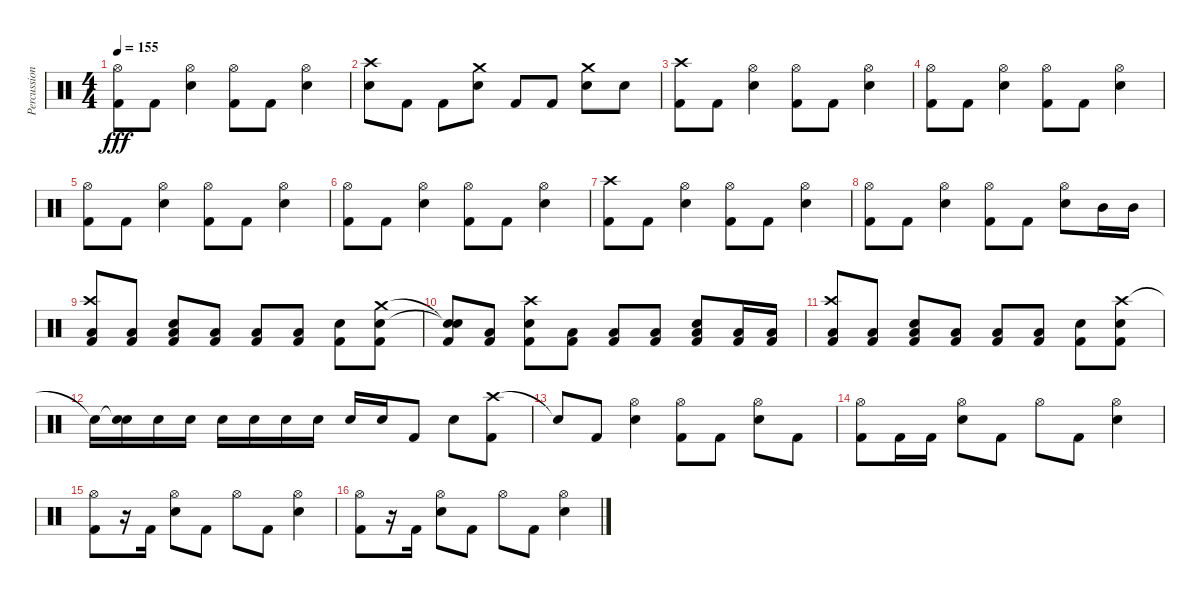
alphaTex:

\track ("Percussion" "Percussion") {instrument percussion}
\staff {score}
\articulation defaults
\ts (4 4)
\tempo 155
\clef neutral
\ks c
("Hi-Hat (open)" "Kick (hit) 2").8{dy fff} "Kick (hit) 2".8 ("Hi-Hat (open)" "Electric Snare (hit)").4 ("Hi-Hat (open)" "Kick (hit) 2").8 "Kick (hit) 2".8 ("Hi-Hat (open)" "Electric Snare (hit)").4 |
("Crash high (hit)" "Electric Snare (hit)").8 "Kick (hit) 2".8 "Kick (hit) 2".8 ("Crash medium (hit)" "Electric Snare (hit)").8 "Kick (hit) 2".8 "Kick (hit) 2".8 ("Crash medium (hit)" "Electric Snare (hit)").8 "Electric Snare (hit)".8 |
("Crash high (hit)" "Kick (hit) 2").8 "Kick (hit) 2".8 ("Hi-Hat (open)" "Electric Snare (hit)").4 ("Hi-Hat (open)" "Kick (hit) 2").8 "Kick (hit) 2".8 ("Hi-Hat (open)" "Electric Snare (hit)").4 |
("Hi-Hat (open)" "Kick (hit) 2").8 "Kick (hit) 2".8 ("Hi-Hat (open)" "Electric Snare (hit)").4 ("Hi-Hat (open)" "Kick (hit) 2").8 "Kick (hit) 2".8 ("Hi-Hat (open)" "Electric Snare (hit)").4 |
("Hi-Hat (open)" "Kick (hit) 2").8 "Kick (hit) 2".8 ("Hi-Hat (open)" "Electric Snare (hit)").4 ("Hi-Hat (open)" "Kick (hit) 2").8 "Kick (hit) 2".8 ("Hi-Hat (open)" "Electric Snare (hit)").4 |
("Hi-Hat (open)" "Kick (hit) 2").8 "Kick (hit) 2".8 ("Hi-Hat (open)" "Electric Snare (hit)").4 ("Hi-Hat (open)" "Kick (hit) 2").8 "Kick (hit) 2".8 ("Hi-Hat (open)" "Electric Snare (hit)").4 |
("Crash high (hit)" "Kick (hit) 2").8 "Kick (hit) 2".8 ("Hi-Hat (open)" "Electric Snare (hit)").4 ("Hi-Hat (open)" "Kick (hit) 2").8 "Kick (hit) 2".8 ("Hi-Hat (open)" "Electric Snare (hit)").4 |
("Hi-Hat (open)" "Kick (hit) 2").8 "Kick (hit) 2".8 ("Hi-Hat (open)" "Electric Snare (hit)").4 ("Hi-Hat (open)" "Kick (hit) 2").8 "Kick (hit) 2".8 ("Hi-Hat (open)" "Electric Snare (hit)").8 "Mid Tom (hit)".16 "Mid Tom (hit)".16 |
("Crash high (hit)" "Low Floor Tom (hit)" "Kick (hit) 2").8 ("Low Floor Tom (hit)" "Kick (hit) 2").8 ("Low Floor Tom (hit)" "Electric Snare (hit)" "Kick (hit) 2").8 ("Low Floor Tom (hit)" "Kick (hit) 2").8 ("Low Floor Tom (hit)" "Kick (hit) 2").8 ("Low Floor Tom (hit)" "Kick (hit) 2").8 ("Electric Snare (hit)" "Kick (hit) 2").8 ("Crash medium (hit)" "Electric Snare (hit)" "Kick (hit) 2").8 |
("Snare (hit)"{t} "Snare (hit)"{t} "Kick (hit) 2").8 ("Low Floor Tom (hit)" "Kick (hit) 2").8 ("Crash high (hit)" "Electric Snare (hit)" "Kick (hit) 2").8 ("Low Floor Tom (hit)" "Kick (hit) 2").8 ("Low Floor Tom (hit)" "Kick (hit) 2").8 ("Low Floor Tom (hit)" "Kick (hit) 2").8 ("Low Floor Tom (hit)" "Electric Snare (hit)" "Kick (hit) 2").8 ("Low Floor Tom (hit)" "Kick (hit) 2").16 ("Low Tom (hit)" "Kick (hit) 2").16 |
("Crash high (hit)" "Low Floor Tom (hit)" "Kick (hit) 2").8 ("Low Floor Tom (hit)" "Kick (hit) 2").8 ("Low Floor Tom (hit)" "Electric Snare (hit)" "Kick (hit) 2").8 ("Low Floor Tom (hit)" "Kick (hit) 2").8 ("Low Floor Tom (hit)" "Kick (hit) 2").8 ("Low Floor Tom (hit)" "Kick (hit) 2").8 ("Electric Snare (hit)" "Kick (hit) 2").8 ("Crash high (hit)" "Electric Snare (hit)" "Kick (hit) 2").8 |
"Snare (hit)"{t}.16 ("Snare (hit)"{t} "Electric Snare (hit)").16 "Electric Snare (hit)".16 "Electric Snare (hit)".16 "Electric Snare (hit)".16 "Electric Snare (hit)".16 "Electric Snare (hit)".16 "Electric Snare (hit)".16 "Electric Snare (hit)".16 "Electric Snare (hit)".16 "Kick (hit) 2".8 "Electric Snare (hit)".8 ("Crash high (hit)" "Kick (hit) 2").8 |
"Snare (hit)"{t}.8 "Kick (hit) 2".8 ("Hi-Hat (open)" "Electric Snare (hit)").4 ("Hi-Hat (open)" "Kick (hit) 2").8 "Kick (hit) 2".8 ("Hi-Hat (open)" "Electric Snare (hit)").8 "Kick (hit) 2".8 |
("Hi-Hat (open)" "Kick (hit) 2").8 "Kick (hit) 2".16 "Kick (hit) 2".16 ("Hi-Hat (open)" "Electric Snare (hit)").8 "Kick (hit) 2".8 "Hi-Hat (open)".8 "Kick (hit) 2".8 ("Hi-Hat (open)" "Electric Snare (hit)").4 |
("Hi-Hat (open)" "Kick (hit) 2").8 r.16 "Kick (hit) 2".16 ("Hi-Hat (open)" "Electric Snare (hit)").8 "Kick (hit) 2".8 "Hi-Hat (open)".8 "Kick (hit) 2".8 ("Hi-Hat (open)" "Electric Snare (hit)").4 |
("Hi-Hat (open)" "Kick (hit) 2").8 r.16 "Kick (hit) 2".16 ("Hi-Hat (open)" "Electric Snare (hit)").8 "Kick (hit) 2".8 "Hi-Hat (open)".8 "Kick (hit) 2".8 ("Hi-Hat (open)" "Electric Snare (hit)").4
